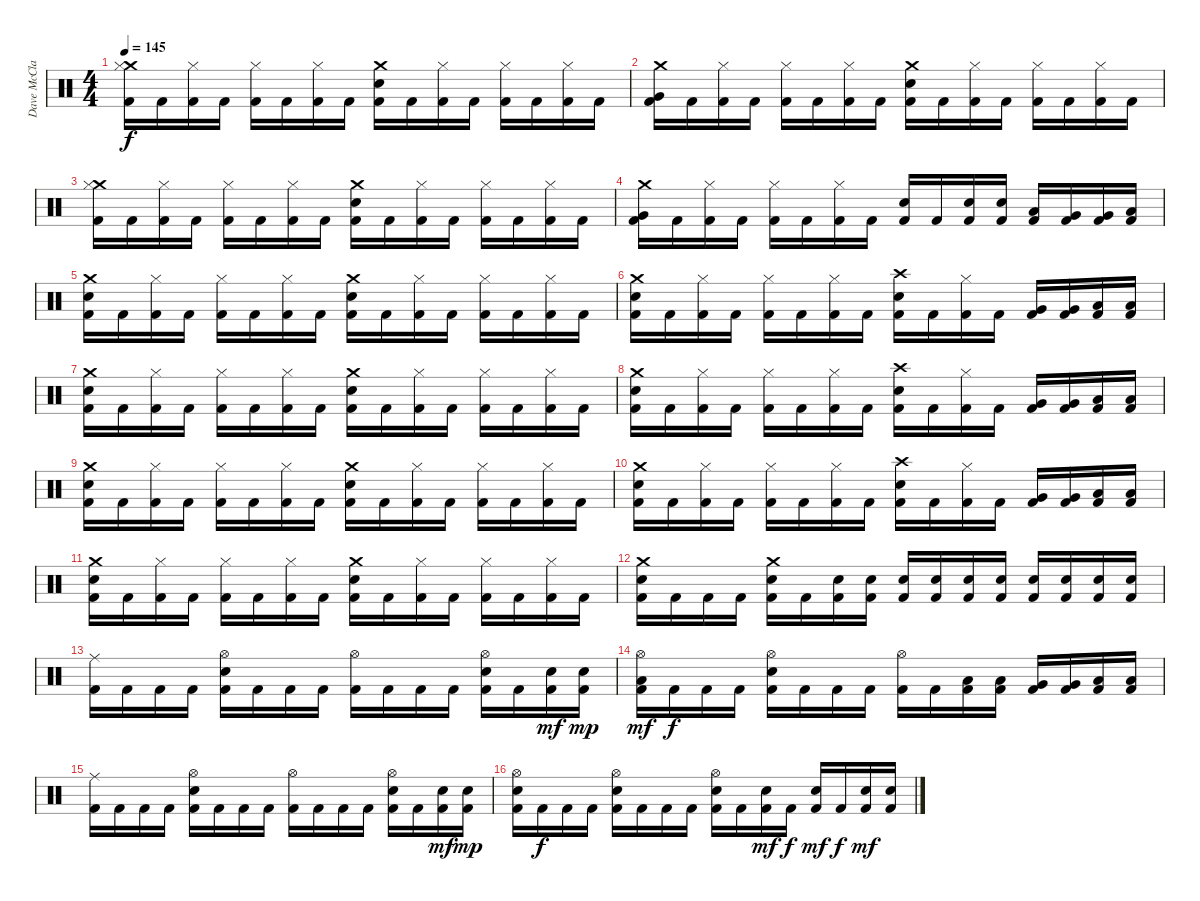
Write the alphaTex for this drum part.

\track ("Dave McClain" "Dave McCla") {instrument percussion}
\staff {score}
\articulation defaults
\ts (4 4)
\tempo 145
\clef neutral
\ks c
("Crash medium (hit)" "Hi-Hat (closed)" "Kick (hit) 2").16{dy f} "Kick (hit) 2".16 ("Hi-Hat (closed)" "Kick (hit) 2").16 "Kick (hit) 2".16 ("Hi-Hat (closed)" "Kick (hit) 2").16 "Kick (hit) 2".16 ("Hi-Hat (closed)" "Kick (hit) 2").16 "Kick (hit) 2".16 ("Crash medium (hit)" "Snare (hit) 2" "Kick (hit) 2").16 "Kick (hit) 2".16 ("Hi-Hat (closed)" "Kick (hit) 2").16 "Kick (hit) 2".16 ("Hi-Hat (closed)" "Kick (hit) 2").16 "Kick (hit) 2".16 ("Hi-Hat (closed)" "Kick (hit) 2").16 "Kick (hit) 2".16 |
("Crash medium (hit)" "Very Low Tom (hit)" "Kick (hit) 2").16 "Kick (hit) 2".16 ("Hi-Hat (closed)" "Kick (hit) 2").16 "Kick (hit) 2".16 ("Hi-Hat (closed)" "Kick (hit) 2").16 "Kick (hit) 2".16 ("Hi-Hat (closed)" "Kick (hit) 2").16 "Kick (hit) 2".16 ("Crash medium (hit)" "Snare (hit) 2" "Kick (hit) 2").16 "Kick (hit) 2".16 ("Hi-Hat (closed)" "Kick (hit) 2").16 "Kick (hit) 2".16 ("Hi-Hat (closed)" "Kick (hit) 2").16 "Kick (hit) 2".16 ("Hi-Hat (closed)" "Kick (hit) 2").16 "Kick (hit) 2".16 |
("Crash medium (hit)" "Hi-Hat (closed)" "Kick (hit) 2").16 "Kick (hit) 2".16 ("Hi-Hat (closed)" "Kick (hit) 2").16 "Kick (hit) 2".16 ("Hi-Hat (closed)" "Kick (hit) 2").16 "Kick (hit) 2".16 ("Hi-Hat (closed)" "Kick (hit) 2").16 "Kick (hit) 2".16 ("Crash medium (hit)" "Snare (hit) 2" "Kick (hit) 2").16 "Kick (hit) 2".16 ("Hi-Hat (closed)" "Kick (hit) 2").16 "Kick (hit) 2".16 ("Hi-Hat (closed)" "Kick (hit) 2").16 "Kick (hit) 2".16 ("Hi-Hat (closed)" "Kick (hit) 2").16 "Kick (hit) 2".16 |
("Crash medium (hit)" "Very Low Tom (hit)" "Kick (hit) 2").16 "Kick (hit) 2".16 ("Hi-Hat (closed)" "Kick (hit) 2").16 "Kick (hit) 2".16 ("Hi-Hat (closed)" "Kick (hit) 2").16 "Kick (hit) 2".16 ("Hi-Hat (closed)" "Kick (hit) 2").16 "Kick (hit) 2".16 ("Snare (hit) 2" "Kick (hit) 2").16 "Kick (hit) 2".16 ("Snare (hit) 2" "Kick (hit) 2").16 ("Snare (hit) 2" "Kick (hit) 2").16 ("Low Tom (hit)" "Kick (hit) 2").16 ("Very Low Tom (hit)" "Kick (hit) 2").16 ("Very Low Tom (hit)" "Kick (hit) 2").16 ("Low Floor Tom (hit)" "Kick (hit) 2").16 |
("Crash medium (hit)" "Snare (hit) 2" "Kick (hit) 2").16 "Kick (hit) 2".16 ("Hi-Hat (closed)" "Kick (hit) 2").16 "Kick (hit) 2".16 ("Hi-Hat (closed)" "Kick (hit) 2").16 "Kick (hit) 2".16 ("Hi-Hat (closed)" "Kick (hit) 2").16 "Kick (hit) 2".16 ("Crash medium (hit)" "Snare (hit) 2" "Kick (hit) 2").16 "Kick (hit) 2".16 ("Hi-Hat (closed)" "Kick (hit) 2").16 "Kick (hit) 2".16 ("Hi-Hat (closed)" "Kick (hit) 2").16 "Kick (hit) 2".16 ("Hi-Hat (closed)" "Kick (hit) 2").16 "Kick (hit) 2".16 |
("Crash medium (hit)" "Snare (hit) 2" "Kick (hit) 2").16 "Kick (hit) 2".16 ("Hi-Hat (closed)" "Kick (hit) 2").16 "Kick (hit) 2".16 ("Hi-Hat (closed)" "Kick (hit) 2").16 "Kick (hit) 2".16 ("Hi-Hat (closed)" "Kick (hit) 2").16 "Kick (hit) 2".16 ("Crash high (hit)" "Snare (hit) 2" "Kick (hit) 2").16 "Kick (hit) 2".16 ("Hi-Hat (closed)" "Kick (hit) 2").16 "Kick (hit) 2".16 ("Very Low Tom (hit)" "Kick (hit) 2").16 ("Very Low Tom (hit)" "Kick (hit) 2").16 ("Low Floor Tom (hit)" "Kick (hit) 2").16 ("Low Floor Tom (hit)" "Kick (hit) 2").16 |
("Crash medium (hit)" "Snare (hit) 2" "Kick (hit) 2").16 "Kick (hit) 2".16 ("Hi-Hat (closed)" "Kick (hit) 2").16 "Kick (hit) 2".16 ("Hi-Hat (closed)" "Kick (hit) 2").16 "Kick (hit) 2".16 ("Hi-Hat (closed)" "Kick (hit) 2").16 "Kick (hit) 2".16 ("Crash medium (hit)" "Snare (hit) 2" "Kick (hit) 2").16 "Kick (hit) 2".16 ("Hi-Hat (closed)" "Kick (hit) 2").16 "Kick (hit) 2".16 ("Hi-Hat (closed)" "Kick (hit) 2").16 "Kick (hit) 2".16 ("Hi-Hat (closed)" "Kick (hit) 2").16 "Kick (hit) 2".16 |
("Crash medium (hit)" "Snare (hit) 2" "Kick (hit) 2").16 "Kick (hit) 2".16 ("Hi-Hat (closed)" "Kick (hit) 2").16 "Kick (hit) 2".16 ("Hi-Hat (closed)" "Kick (hit) 2").16 "Kick (hit) 2".16 ("Hi-Hat (closed)" "Kick (hit) 2").16 "Kick (hit) 2".16 ("Crash high (hit)" "Snare (hit) 2" "Kick (hit) 2").16 "Kick (hit) 2".16 ("Hi-Hat (closed)" "Kick (hit) 2").16 "Kick (hit) 2".16 ("Very Low Tom (hit)" "Kick (hit) 2").16 ("Very Low Tom (hit)" "Kick (hit) 2").16 ("Low Floor Tom (hit)" "Kick (hit) 2").16 ("Low Floor Tom (hit)" "Kick (hit) 2").16 |
("Crash medium (hit)" "Snare (hit) 2" "Kick (hit) 2").16 "Kick (hit) 2".16 ("Hi-Hat (closed)" "Kick (hit) 2").16 "Kick (hit) 2".16 ("Hi-Hat (closed)" "Kick (hit) 2").16 "Kick (hit) 2".16 ("Hi-Hat (closed)" "Kick (hit) 2").16 "Kick (hit) 2".16 ("Crash medium (hit)" "Snare (hit) 2" "Kick (hit) 2").16 "Kick (hit) 2".16 ("Hi-Hat (closed)" "Kick (hit) 2").16 "Kick (hit) 2".16 ("Hi-Hat (closed)" "Kick (hit) 2").16 "Kick (hit) 2".16 ("Hi-Hat (closed)" "Kick (hit) 2").16 "Kick (hit) 2".16 |
("Crash medium (hit)" "Snare (hit) 2" "Kick (hit) 2").16 "Kick (hit) 2".16 ("Hi-Hat (closed)" "Kick (hit) 2").16 "Kick (hit) 2".16 ("Hi-Hat (closed)" "Kick (hit) 2").16 "Kick (hit) 2".16 ("Hi-Hat (closed)" "Kick (hit) 2").16 "Kick (hit) 2".16 ("Crash high (hit)" "Snare (hit) 2" "Kick (hit) 2").16 "Kick (hit) 2".16 ("Hi-Hat (closed)" "Kick (hit) 2").16 "Kick (hit) 2".16 ("Very Low Tom (hit)" "Kick (hit) 2").16 ("Very Low Tom (hit)" "Kick (hit) 2").16 ("Low Floor Tom (hit)" "Kick (hit) 2").16 ("Low Floor Tom (hit)" "Kick (hit) 2").16 |
("Crash medium (hit)" "Snare (hit) 2" "Kick (hit) 2").16 "Kick (hit) 2".16 ("Hi-Hat (closed)" "Kick (hit) 2").16 "Kick (hit) 2".16 ("Hi-Hat (closed)" "Kick (hit) 2").16 "Kick (hit) 2".16 ("Hi-Hat (closed)" "Kick (hit) 2").16 "Kick (hit) 2".16 ("Crash medium (hit)" "Snare (hit) 2" "Kick (hit) 2").16 "Kick (hit) 2".16 ("Hi-Hat (closed)" "Kick (hit) 2").16 "Kick (hit) 2".16 ("Hi-Hat (closed)" "Kick (hit) 2").16 "Kick (hit) 2".16 ("Hi-Hat (closed)" "Kick (hit) 2").16 "Kick (hit) 2".16 |
("Crash medium (hit)" "Snare (hit) 2" "Kick (hit) 2").16 "Kick (hit) 2".16 "Kick (hit) 2".16 "Kick (hit) 2".16 ("Crash medium (hit)" "Snare (hit) 2" "Kick (hit) 2").16 "Kick (hit) 2".16 ("Snare (hit) 2" "Kick (hit) 2").16 ("Snare (hit) 2" "Kick (hit) 2").16 ("Electric Snare (hit)" "Kick (hit) 2").16 ("Electric Snare (hit)" "Kick (hit) 2").16 ("Electric Snare (hit)" "Kick (hit) 2").16 ("Electric Snare (hit)" "Kick (hit) 2").16 ("Electric Snare (hit)" "Kick (hit) 2").16 ("Electric Snare (hit)" "Kick (hit) 2").16 ("Electric Snare (hit)" "Kick (hit) 2").16 ("Electric Snare (hit)" "Kick (hit) 2").16 |
("Ride (middle)" "Kick (hit) 2").16 "Kick (hit) 2".16 "Kick (hit) 2".16 "Kick (hit) 2".16 ("Hi-Hat (open)" "Snare (hit) 2" "Kick (hit) 2").16 "Kick (hit) 2".16 "Kick (hit) 2".16 "Kick (hit) 2".16 ("Hi-Hat (open)" "Kick (hit) 2").16 "Kick (hit) 2".16 "Kick (hit) 2".16 "Kick (hit) 2".16 ("Hi-Hat (open)" "Snare (hit) 2" "Kick (hit) 2").16 "Kick (hit) 2".16 ("Snare (hit) 2" "Kick (hit) 2").16{dy mf} ("Electric Snare (hit)" "Kick (hit) 2").16{dy mp} |
("Hi-Hat (open)" "Low Tom (hit)" "Kick (hit) 2").16{dy mf} "Kick (hit) 2".16{dy f} "Kick (hit) 2".16 "Kick (hit) 2".16 ("Hi-Hat (open)" "Snare (hit) 2" "Kick (hit) 2").16 "Kick (hit) 2".16 "Kick (hit) 2".16 "Kick (hit) 2".16 ("Hi-Hat (open)" "Kick (hit) 2").16 "Kick (hit) 2".16 ("Low Floor Tom (hit)" "Kick (hit) 2").16 ("Low Floor Tom (hit)" "Kick (hit) 2").16 ("Very Low Tom (hit)" "Kick (hit) 2").16 ("Very Low Tom (hit)" "Kick (hit) 2").16 ("Low Floor Tom (hit)" "Kick (hit) 2").16 ("Low Floor Tom (hit)" "Kick (hit) 2").16 |
("Ride (middle)" "Kick (hit) 2").16 "Kick (hit) 2".16 "Kick (hit) 2".16 "Kick (hit) 2".16 ("Hi-Hat (open)" "Snare (hit) 2" "Kick (hit) 2").16 "Kick (hit) 2".16 "Kick (hit) 2".16 "Kick (hit) 2".16 ("Hi-Hat (open)" "Kick (hit) 2").16 "Kick (hit) 2".16 "Kick (hit) 2".16 "Kick (hit) 2".16 ("Hi-Hat (open)" "Snare (hit) 2" "Kick (hit) 2").16 "Kick (hit) 2".16 ("Snare (hit) 2" "Kick (hit) 2").16{dy mf} ("Electric Snare (hit)" "Kick (hit) 2").16{dy mp} |
("Hi-Hat (open)" "Snare (hit) 2" "Kick (hit) 2").16 "Kick (hit) 2".16{dy f} "Kick (hit) 2".16 "Kick (hit) 2".16 ("Hi-Hat (open)" "Snare (hit) 2" "Kick (hit) 2").16 "Kick (hit) 2".16 "Kick (hit) 2".16 "Kick (hit) 2".16 ("Hi-Hat (open)" "Snare (hit) 2" "Kick (hit) 2").16 "Kick (hit) 2".16 ("Electric Snare (hit)" "Kick (hit) 2").16{dy mf} "Kick (hit) 2".16{dy f} ("Electric Snare (hit)" "Kick (hit) 2").16{dy mf} "Kick (hit) 2".16{dy f} ("Snare (hit) 2" "Kick (hit) 2").16{dy mf} ("Snare (hit) 2" "Kick (hit) 2").16
